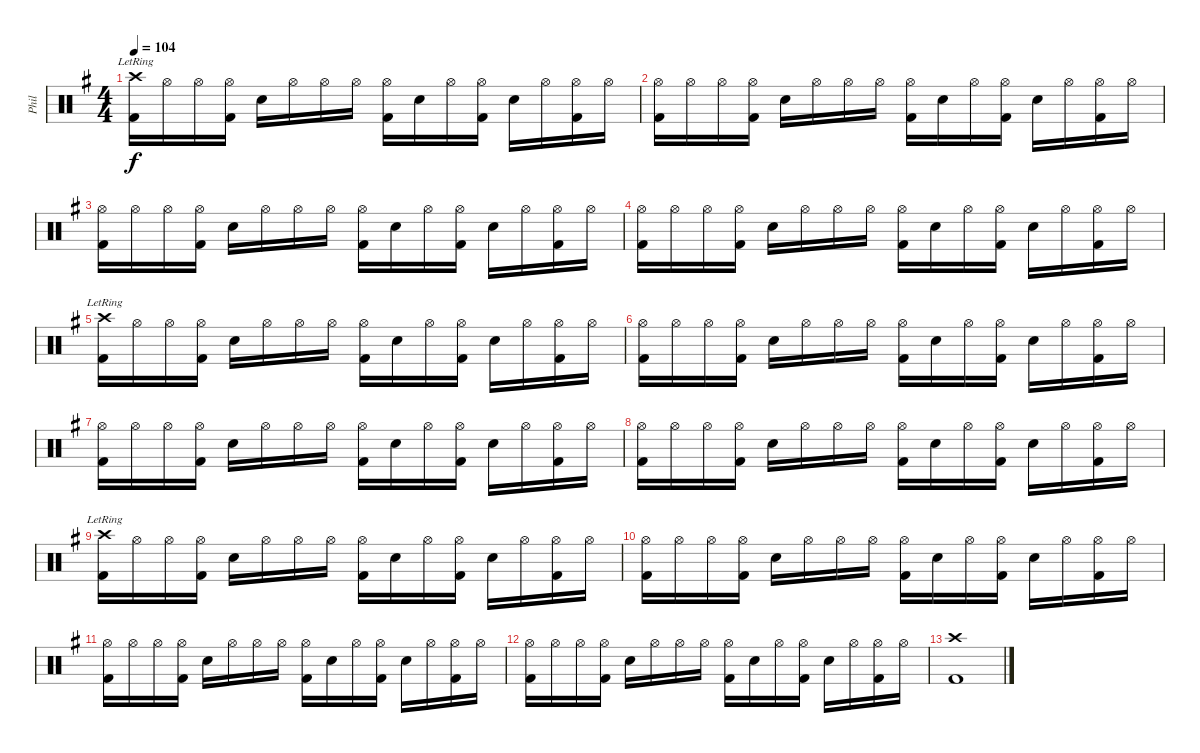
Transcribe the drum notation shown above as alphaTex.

\track ("Phil" "Phil") {instrument percussion}
\staff {score}
\articulation defaults
\ts (4 4)
\tempo 104
\clef neutral
\ks g
("Kick (hit) 2" "Crash high (hit)"{lr}).16{dy f} "Hi-Hat (open)".16 "Hi-Hat (open)".16 ("Kick (hit) 2" "Hi-Hat (open)").16 "Snare (hit) 2".16 "Hi-Hat (open)".16 "Hi-Hat (open)".16 "Hi-Hat (open)".16 ("Kick (hit) 2" "Hi-Hat (open)").16 "Snare (hit) 2".16 "Hi-Hat (open)".16 ("Kick (hit) 2" "Hi-Hat (open)").16 "Snare (hit) 2".16 "Hi-Hat (open)".16 ("Kick (hit) 2" "Hi-Hat (open)").16 "Hi-Hat (open)".16 |
("Kick (hit) 2" "Hi-Hat (open)").16 "Hi-Hat (open)".16 "Hi-Hat (open)".16 ("Kick (hit) 2" "Hi-Hat (open)").16 "Snare (hit) 2".16 "Hi-Hat (open)".16 "Hi-Hat (open)".16 "Hi-Hat (open)".16 ("Kick (hit) 2" "Hi-Hat (open)").16 "Snare (hit) 2".16 "Hi-Hat (open)".16 ("Kick (hit) 2" "Hi-Hat (open)").16 "Snare (hit) 2".16 "Hi-Hat (open)".16 ("Kick (hit) 2" "Hi-Hat (open)").16 "Hi-Hat (open)".16 |
("Kick (hit) 2" "Hi-Hat (open)").16 "Hi-Hat (open)".16 "Hi-Hat (open)".16 ("Kick (hit) 2" "Hi-Hat (open)").16 "Snare (hit) 2".16 "Hi-Hat (open)".16 "Hi-Hat (open)".16 "Hi-Hat (open)".16 ("Kick (hit) 2" "Hi-Hat (open)").16 "Snare (hit) 2".16 "Hi-Hat (open)".16 ("Kick (hit) 2" "Hi-Hat (open)").16 "Snare (hit) 2".16 "Hi-Hat (open)".16 ("Kick (hit) 2" "Hi-Hat (open)").16 "Hi-Hat (open)".16 |
("Kick (hit) 2" "Hi-Hat (open)").16 "Hi-Hat (open)".16 "Hi-Hat (open)".16 ("Kick (hit) 2" "Hi-Hat (open)").16 "Snare (hit) 2".16 "Hi-Hat (open)".16 "Hi-Hat (open)".16 "Hi-Hat (open)".16 ("Kick (hit) 2" "Hi-Hat (open)").16 "Snare (hit) 2".16 "Hi-Hat (open)".16 ("Kick (hit) 2" "Hi-Hat (open)").16 "Snare (hit) 2".16 "Hi-Hat (open)".16 ("Kick (hit) 2" "Hi-Hat (open)").16 "Hi-Hat (open)".16 |
("Kick (hit) 2" "Crash high (hit)"{lr}).16 "Hi-Hat (open)".16 "Hi-Hat (open)".16 ("Kick (hit) 2" "Hi-Hat (open)").16 "Snare (hit) 2".16 "Hi-Hat (open)".16 "Hi-Hat (open)".16 "Hi-Hat (open)".16 ("Kick (hit) 2" "Hi-Hat (open)").16 "Snare (hit) 2".16 "Hi-Hat (open)".16 ("Kick (hit) 2" "Hi-Hat (open)").16 "Snare (hit) 2".16 "Hi-Hat (open)".16 ("Kick (hit) 2" "Hi-Hat (open)").16 "Hi-Hat (open)".16 |
("Kick (hit) 2" "Hi-Hat (open)").16 "Hi-Hat (open)".16 "Hi-Hat (open)".16 ("Kick (hit) 2" "Hi-Hat (open)").16 "Snare (hit) 2".16 "Hi-Hat (open)".16 "Hi-Hat (open)".16 "Hi-Hat (open)".16 ("Kick (hit) 2" "Hi-Hat (open)").16 "Snare (hit) 2".16 "Hi-Hat (open)".16 ("Kick (hit) 2" "Hi-Hat (open)").16 "Snare (hit) 2".16 "Hi-Hat (open)".16 ("Kick (hit) 2" "Hi-Hat (open)").16 "Hi-Hat (open)".16 |
("Kick (hit) 2" "Hi-Hat (open)").16 "Hi-Hat (open)".16 "Hi-Hat (open)".16 ("Kick (hit) 2" "Hi-Hat (open)").16 "Snare (hit) 2".16 "Hi-Hat (open)".16 "Hi-Hat (open)".16 "Hi-Hat (open)".16 ("Kick (hit) 2" "Hi-Hat (open)").16 "Snare (hit) 2".16 "Hi-Hat (open)".16 ("Kick (hit) 2" "Hi-Hat (open)").16 "Snare (hit) 2".16 "Hi-Hat (open)".16 ("Kick (hit) 2" "Hi-Hat (open)").16 "Hi-Hat (open)".16 |
("Kick (hit) 2" "Hi-Hat (open)").16 "Hi-Hat (open)".16 "Hi-Hat (open)".16 ("Kick (hit) 2" "Hi-Hat (open)").16 "Snare (hit) 2".16 "Hi-Hat (open)".16 "Hi-Hat (open)".16 "Hi-Hat (open)".16 ("Kick (hit) 2" "Hi-Hat (open)").16 "Snare (hit) 2".16 "Hi-Hat (open)".16 ("Kick (hit) 2" "Hi-Hat (open)").16 "Snare (hit) 2".16 "Hi-Hat (open)".16 ("Kick (hit) 2" "Hi-Hat (open)").16 "Hi-Hat (open)".16 |
("Kick (hit) 2" "Crash high (hit)"{lr}).16 "Hi-Hat (open)".16 "Hi-Hat (open)".16 ("Kick (hit) 2" "Hi-Hat (open)").16 "Snare (hit) 2".16 "Hi-Hat (open)".16 "Hi-Hat (open)".16 "Hi-Hat (open)".16 ("Kick (hit) 2" "Hi-Hat (open)").16 "Snare (hit) 2".16 "Hi-Hat (open)".16 ("Kick (hit) 2" "Hi-Hat (open)").16 "Snare (hit) 2".16 "Hi-Hat (open)".16 ("Kick (hit) 2" "Hi-Hat (open)").16 "Hi-Hat (open)".16 |
("Kick (hit) 2" "Hi-Hat (open)").16 "Hi-Hat (open)".16 "Hi-Hat (open)".16 ("Kick (hit) 2" "Hi-Hat (open)").16 "Snare (hit) 2".16 "Hi-Hat (open)".16 "Hi-Hat (open)".16 "Hi-Hat (open)".16 ("Kick (hit) 2" "Hi-Hat (open)").16 "Snare (hit) 2".16 "Hi-Hat (open)".16 ("Kick (hit) 2" "Hi-Hat (open)").16 "Snare (hit) 2".16 "Hi-Hat (open)".16 ("Kick (hit) 2" "Hi-Hat (open)").16 "Hi-Hat (open)".16 |
("Kick (hit) 2" "Hi-Hat (open)").16 "Hi-Hat (open)".16 "Hi-Hat (open)".16 ("Kick (hit) 2" "Hi-Hat (open)").16 "Snare (hit) 2".16 "Hi-Hat (open)".16 "Hi-Hat (open)".16 "Hi-Hat (open)".16 ("Kick (hit) 2" "Hi-Hat (open)").16 "Snare (hit) 2".16 "Hi-Hat (open)".16 ("Kick (hit) 2" "Hi-Hat (open)").16 "Snare (hit) 2".16 "Hi-Hat (open)".16 ("Kick (hit) 2" "Hi-Hat (open)").16 "Hi-Hat (open)".16 |
("Kick (hit) 2" "Hi-Hat (open)").16 "Hi-Hat (open)".16 "Hi-Hat (open)".16 ("Kick (hit) 2" "Hi-Hat (open)").16 "Snare (hit) 2".16 "Hi-Hat (open)".16 "Hi-Hat (open)".16 "Hi-Hat (open)".16 ("Kick (hit) 2" "Hi-Hat (open)").16 "Snare (hit) 2".16 "Hi-Hat (open)".16 ("Kick (hit) 2" "Hi-Hat (open)").16 "Snare (hit) 2".16 "Hi-Hat (open)".16 ("Kick (hit) 2" "Hi-Hat (open)").16 "Hi-Hat (open)".16 |
("Kick (hit) 2" "Crash high (hit)").1
